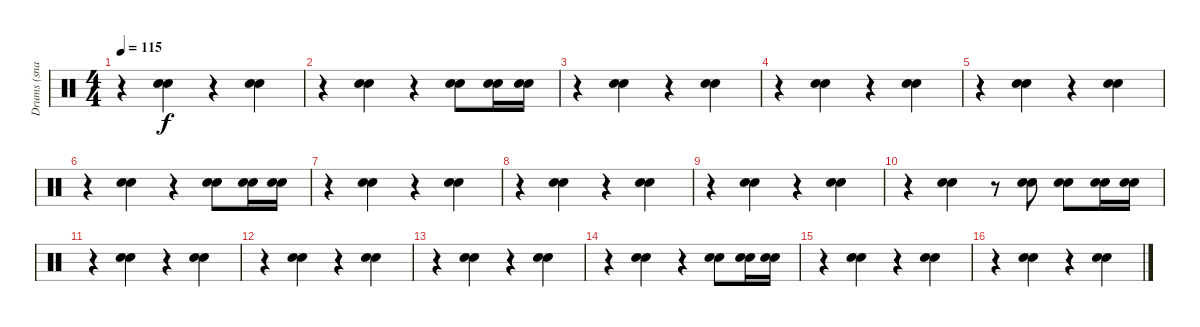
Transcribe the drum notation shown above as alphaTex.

\track ("Drums (snare drum)" "Drums (sna") {instrument percussion}
\staff {score}
\articulation defaults
\ts (4 4)
\tempo 115
\clef neutral
\ks c
r.4{dy f} ("Electric Snare (hit)" "Snare (hit) 2").4 r.4 ("Electric Snare (hit)" "Snare (hit) 2").4 |
r.4 ("Electric Snare (hit)" "Snare (hit) 2").4 r.4 ("Electric Snare (hit)" "Snare (hit) 2").8 ("Electric Snare (hit)" "Snare (hit) 2").16 ("Electric Snare (hit)" "Snare (hit) 2").16 |
r.4 ("Electric Snare (hit)" "Snare (hit) 2").4 r.4 ("Electric Snare (hit)" "Snare (hit) 2").4 |
r.4 ("Electric Snare (hit)" "Snare (hit) 2").4 r.4 ("Electric Snare (hit)" "Snare (hit) 2").4 |
r.4 ("Electric Snare (hit)" "Snare (hit) 2").4 r.4 ("Electric Snare (hit)" "Snare (hit) 2").4 |
r.4 ("Electric Snare (hit)" "Snare (hit) 2").4 r.4 ("Electric Snare (hit)" "Snare (hit) 2").8 ("Electric Snare (hit)" "Snare (hit) 2").16 ("Electric Snare (hit)" "Snare (hit) 2").16 |
r.4 ("Electric Snare (hit)" "Snare (hit) 2").4 r.4 ("Electric Snare (hit)" "Snare (hit) 2").4 |
r.4 ("Electric Snare (hit)" "Snare (hit) 2").4 r.4 ("Electric Snare (hit)" "Snare (hit) 2").4 |
r.4 ("Electric Snare (hit)" "Snare (hit) 2").4 r.4 ("Electric Snare (hit)" "Snare (hit) 2").4 |
r.4 ("Electric Snare (hit)" "Snare (hit) 2").4 r.8 ("Electric Snare (hit)" "Snare (hit) 2").8 ("Electric Snare (hit)" "Snare (hit) 2").8 ("Electric Snare (hit)" "Snare (hit) 2").16 ("Electric Snare (hit)" "Snare (hit) 2").16 |
r.4 ("Electric Snare (hit)" "Snare (hit) 2").4 r.4 ("Electric Snare (hit)" "Snare (hit) 2").4 |
r.4 ("Electric Snare (hit)" "Snare (hit) 2").4 r.4 ("Electric Snare (hit)" "Snare (hit) 2").4 |
r.4 ("Electric Snare (hit)" "Snare (hit) 2").4 r.4 ("Electric Snare (hit)" "Snare (hit) 2").4 |
r.4 ("Electric Snare (hit)" "Snare (hit) 2").4 r.4 ("Electric Snare (hit)" "Snare (hit) 2").8 ("Electric Snare (hit)" "Snare (hit) 2").16 ("Electric Snare (hit)" "Snare (hit) 2").16 |
r.4 ("Electric Snare (hit)" "Snare (hit) 2").4 r.4 ("Electric Snare (hit)" "Snare (hit) 2").4 |
r.4 ("Electric Snare (hit)" "Snare (hit) 2").4 r.4 ("Electric Snare (hit)" "Snare (hit) 2").4
